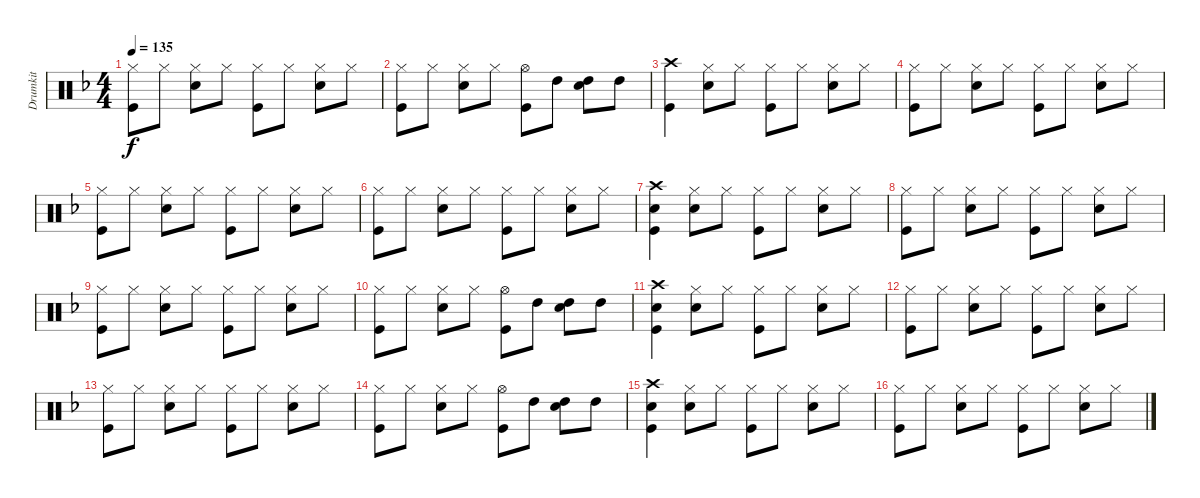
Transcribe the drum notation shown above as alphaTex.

\track ("Drumkit" "Drumkit") {instrument percussion}
\staff {score}
\articulation defaults
\ts (4 4)
\tempo 135
\clef neutral
\ks f
("Hi-Hat (closed)" "Kick (hit)").8{dy f} "Hi-Hat (closed)".8 ("Hi-Hat (closed)" "Snare (hit) 2").8 "Hi-Hat (closed)".8 ("Hi-Hat (closed)" "Kick (hit)").8 "Hi-Hat (closed)".8 ("Hi-Hat (closed)" "Snare (hit) 2").8 "Hi-Hat (closed)".8 |
("Hi-Hat (closed)" "Kick (hit)").8 "Hi-Hat (closed)".8 ("Hi-Hat (closed)" "Snare (hit) 2").8 "Hi-Hat (closed)".8 ("Hi-Hat (open)" "Kick (hit)").8 "High Tom (hit)".8 ("High Tom (hit)" "Snare (hit) 2").8 "High Tom (hit)".8 |
("Crash high (hit)" "Kick (hit)").4 ("Hi-Hat (closed)" "Snare (hit) 2").8 "Hi-Hat (closed)".8 ("Hi-Hat (closed)" "Kick (hit)").8 "Hi-Hat (closed)".8 ("Hi-Hat (closed)" "Snare (hit) 2").8 "Hi-Hat (closed)".8 |
("Hi-Hat (closed)" "Kick (hit)").8 "Hi-Hat (closed)".8 ("Hi-Hat (closed)" "Snare (hit) 2").8 "Hi-Hat (closed)".8 ("Hi-Hat (closed)" "Kick (hit)").8 "Hi-Hat (closed)".8 ("Hi-Hat (closed)" "Snare (hit) 2").8 "Hi-Hat (closed)".8 |
("Hi-Hat (closed)" "Kick (hit)").8 "Hi-Hat (closed)".8 ("Hi-Hat (closed)" "Snare (hit) 2").8 "Hi-Hat (closed)".8 ("Hi-Hat (closed)" "Kick (hit)").8 "Hi-Hat (closed)".8 ("Hi-Hat (closed)" "Snare (hit) 2").8 "Hi-Hat (closed)".8 |
("Hi-Hat (closed)" "Kick (hit)").8 "Hi-Hat (closed)".8 ("Hi-Hat (closed)" "Snare (hit) 2").8 "Hi-Hat (closed)".8 ("Hi-Hat (closed)" "Kick (hit)").8 "Hi-Hat (closed)".8 ("Hi-Hat (closed)" "Snare (hit) 2").8 "Hi-Hat (closed)".8 |
("Crash high (hit)" "Snare (hit) 2" "Kick (hit)").4 ("Hi-Hat (closed)" "Snare (hit) 2").8 "Hi-Hat (closed)".8 ("Hi-Hat (closed)" "Kick (hit)").8 "Hi-Hat (closed)".8 ("Hi-Hat (closed)" "Snare (hit) 2").8 "Hi-Hat (closed)".8 |
("Hi-Hat (closed)" "Kick (hit)").8 "Hi-Hat (closed)".8 ("Hi-Hat (closed)" "Snare (hit) 2").8 "Hi-Hat (closed)".8 ("Hi-Hat (closed)" "Kick (hit)").8 "Hi-Hat (closed)".8 ("Hi-Hat (closed)" "Snare (hit) 2").8 "Hi-Hat (closed)".8 |
("Hi-Hat (closed)" "Kick (hit)").8 "Hi-Hat (closed)".8 ("Hi-Hat (closed)" "Snare (hit) 2").8 "Hi-Hat (closed)".8 ("Hi-Hat (closed)" "Kick (hit)").8 "Hi-Hat (closed)".8 ("Hi-Hat (closed)" "Snare (hit) 2").8 "Hi-Hat (closed)".8 |
("Hi-Hat (closed)" "Kick (hit)").8 "Hi-Hat (closed)".8 ("Hi-Hat (closed)" "Snare (hit) 2").8 "Hi-Hat (closed)".8 ("Hi-Hat (open)" "Kick (hit)").8 "High Tom (hit)".8 ("High Tom (hit)" "Snare (hit) 2").8 "High Tom (hit)".8 |
("Crash high (hit)" "Snare (hit) 2" "Kick (hit)").4 ("Hi-Hat (closed)" "Snare (hit) 2").8 "Hi-Hat (closed)".8 ("Hi-Hat (closed)" "Kick (hit)").8 "Hi-Hat (closed)".8 ("Hi-Hat (closed)" "Snare (hit) 2").8 "Hi-Hat (closed)".8 |
("Hi-Hat (closed)" "Kick (hit)").8 "Hi-Hat (closed)".8 ("Hi-Hat (closed)" "Snare (hit) 2").8 "Hi-Hat (closed)".8 ("Hi-Hat (closed)" "Kick (hit)").8 "Hi-Hat (closed)".8 ("Hi-Hat (closed)" "Snare (hit) 2").8 "Hi-Hat (closed)".8 |
("Hi-Hat (closed)" "Kick (hit)").8 "Hi-Hat (closed)".8 ("Hi-Hat (closed)" "Snare (hit) 2").8 "Hi-Hat (closed)".8 ("Hi-Hat (closed)" "Kick (hit)").8 "Hi-Hat (closed)".8 ("Hi-Hat (closed)" "Snare (hit) 2").8 "Hi-Hat (closed)".8 |
("Hi-Hat (closed)" "Kick (hit)").8 "Hi-Hat (closed)".8 ("Hi-Hat (closed)" "Snare (hit) 2").8 "Hi-Hat (closed)".8 ("Hi-Hat (open)" "Kick (hit)").8 "High Tom (hit)".8 ("High Tom (hit)" "Snare (hit) 2").8 "High Tom (hit)".8 |
("Crash high (hit)" "Snare (hit) 2" "Kick (hit)").4 ("Hi-Hat (closed)" "Snare (hit) 2").8 "Hi-Hat (closed)".8 ("Hi-Hat (closed)" "Kick (hit)").8 "Hi-Hat (closed)".8 ("Hi-Hat (closed)" "Snare (hit) 2").8 "Hi-Hat (closed)".8 |
("Hi-Hat (closed)" "Kick (hit)").8 "Hi-Hat (closed)".8 ("Hi-Hat (closed)" "Snare (hit) 2").8 "Hi-Hat (closed)".8 ("Hi-Hat (closed)" "Kick (hit)").8 "Hi-Hat (closed)".8 ("Hi-Hat (closed)" "Snare (hit) 2").8 "Hi-Hat (closed)".8
